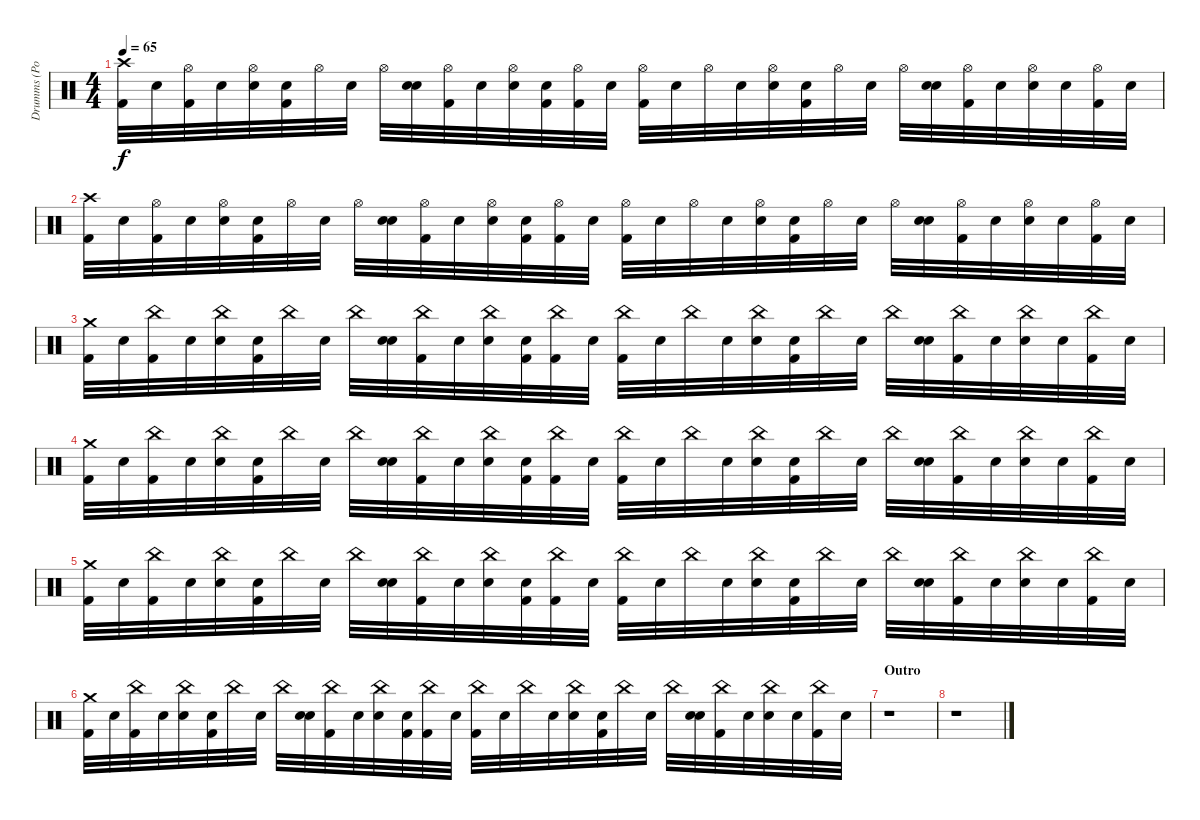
\track ("Drumms (Poll0)" "Drumms (Po") {instrument percussion}
\staff {score}
\articulation defaults
\ts (4 4)
\tempo 65
\clef neutral
\ks c
("Crash high (hit)" "Kick (hit) 2").32{dy f} "Snare (hit)".32 ("Hi-Hat (open)" "Kick (hit) 2").32 "Snare (hit)".32 ("Hi-Hat (open)" "Snare (hit) 2").32 ("Snare (hit)" "Kick (hit) 2").32 "Hi-Hat (open)".32 "Snare (hit)".32 "Hi-Hat (open)".32 ("Snare (hit)" "Snare (hit) 2").32 ("Hi-Hat (open)" "Kick (hit) 2").32 "Snare (hit)".32 ("Hi-Hat (open)" "Snare (hit) 2").32 ("Snare (hit)" "Kick (hit) 2").32 ("Hi-Hat (open)" "Kick (hit) 2").32 "Snare (hit)".32 ("Hi-Hat (open)" "Kick (hit) 2").32 "Snare (hit)".32 "Hi-Hat (open)".32 "Snare (hit)".32 ("Hi-Hat (open)" "Snare (hit) 2").32 ("Snare (hit)" "Kick (hit) 2").32 "Hi-Hat (open)".32 "Snare (hit)".32 "Hi-Hat (open)".32 ("Snare (hit)" "Snare (hit) 2").32 ("Hi-Hat (open)" "Kick (hit) 2").32 "Snare (hit)".32 ("Hi-Hat (open)" "Snare (hit) 2").32 "Snare (hit)".32 ("Hi-Hat (open)" "Kick (hit) 2").32 "Snare (hit)".32 |
("Crash high (hit)" "Kick (hit) 2").32 "Snare (hit)".32 ("Hi-Hat (open)" "Kick (hit) 2").32 "Snare (hit)".32 ("Hi-Hat (open)" "Snare (hit) 2").32 ("Snare (hit)" "Kick (hit) 2").32 "Hi-Hat (open)".32 "Snare (hit)".32 "Hi-Hat (open)".32 ("Snare (hit)" "Snare (hit) 2").32 ("Hi-Hat (open)" "Kick (hit) 2").32 "Snare (hit)".32 ("Hi-Hat (open)" "Snare (hit) 2").32 ("Snare (hit)" "Kick (hit) 2").32 ("Hi-Hat (open)" "Kick (hit) 2").32 "Snare (hit)".32 ("Hi-Hat (open)" "Kick (hit) 2").32 "Snare (hit)".32 "Hi-Hat (open)".32 "Snare (hit)".32 ("Hi-Hat (open)" "Snare (hit) 2").32 ("Snare (hit)" "Kick (hit) 2").32 "Hi-Hat (open)".32 "Snare (hit)".32 "Hi-Hat (open)".32 ("Snare (hit)" "Snare (hit) 2").32 ("Hi-Hat (open)" "Kick (hit) 2").32 "Snare (hit)".32 ("Hi-Hat (open)" "Snare (hit) 2").32 "Snare (hit)".32 ("Hi-Hat (open)" "Kick (hit) 2").32 "Snare (hit)".32 |
("Crash medium (hit)" "Kick (hit) 2").32 "Snare (hit)".32 ("China (hit)" "Kick (hit) 2").32 "Snare (hit)".32 ("China (hit)" "Snare (hit) 2").32 ("Snare (hit)" "Kick (hit) 2").32 "China (hit)".32 "Snare (hit)".32 "China (hit)".32 ("Snare (hit)" "Snare (hit) 2").32 ("China (hit)" "Kick (hit) 2").32 "Snare (hit)".32 ("China (hit)" "Snare (hit) 2").32 ("Snare (hit)" "Kick (hit) 2").32 ("China (hit)" "Kick (hit) 2").32 "Snare (hit)".32 ("China (hit)" "Kick (hit) 2").32 "Snare (hit)".32 "China (hit)".32 "Snare (hit)".32 ("China (hit)" "Snare (hit) 2").32 ("Snare (hit)" "Kick (hit) 2").32 "China (hit)".32 "Snare (hit)".32 "China (hit)".32 ("Snare (hit)" "Snare (hit) 2").32 ("China (hit)" "Kick (hit) 2").32 "Snare (hit)".32 ("China (hit)" "Snare (hit) 2").32 "Snare (hit)".32 ("China (hit)" "Kick (hit) 2").32 "Snare (hit)".32 |
("Crash medium (hit)" "Kick (hit) 2").32 "Snare (hit)".32 ("China (hit)" "Kick (hit) 2").32 "Snare (hit)".32 ("China (hit)" "Snare (hit) 2").32 ("Snare (hit)" "Kick (hit) 2").32 "China (hit)".32 "Snare (hit)".32 "China (hit)".32 ("Snare (hit)" "Snare (hit) 2").32 ("China (hit)" "Kick (hit) 2").32 "Snare (hit)".32 ("China (hit)" "Snare (hit) 2").32 ("Snare (hit)" "Kick (hit) 2").32 ("China (hit)" "Kick (hit) 2").32 "Snare (hit)".32 ("China (hit)" "Kick (hit) 2").32 "Snare (hit)".32 "China (hit)".32 "Snare (hit)".32 ("China (hit)" "Snare (hit) 2").32 ("Snare (hit)" "Kick (hit) 2").32 "China (hit)".32 "Snare (hit)".32 "China (hit)".32 ("Snare (hit)" "Snare (hit) 2").32 ("China (hit)" "Kick (hit) 2").32 "Snare (hit)".32 ("China (hit)" "Snare (hit) 2").32 "Snare (hit)".32 ("China (hit)" "Kick (hit) 2").32 "Snare (hit)".32 |
("Crash medium (hit)" "Kick (hit) 2").32 "Snare (hit)".32 ("China (hit)" "Kick (hit) 2").32 "Snare (hit)".32 ("China (hit)" "Snare (hit) 2").32 ("Snare (hit)" "Kick (hit) 2").32 "China (hit)".32 "Snare (hit)".32 "China (hit)".32 ("Snare (hit)" "Snare (hit) 2").32 ("China (hit)" "Kick (hit) 2").32 "Snare (hit)".32 ("China (hit)" "Snare (hit) 2").32 ("Snare (hit)" "Kick (hit) 2").32 ("China (hit)" "Kick (hit) 2").32 "Snare (hit)".32 ("China (hit)" "Kick (hit) 2").32 "Snare (hit)".32 "China (hit)".32 "Snare (hit)".32 ("China (hit)" "Snare (hit) 2").32 ("Snare (hit)" "Kick (hit) 2").32 "China (hit)".32 "Snare (hit)".32 "China (hit)".32 ("Snare (hit)" "Snare (hit) 2").32 ("China (hit)" "Kick (hit) 2").32 "Snare (hit)".32 ("China (hit)" "Snare (hit) 2").32 "Snare (hit)".32 ("China (hit)" "Kick (hit) 2").32 "Snare (hit)".32 |
("Crash medium (hit)" "Kick (hit) 2").32 "Snare (hit)".32 ("China (hit)" "Kick (hit) 2").32 "Snare (hit)".32 ("China (hit)" "Snare (hit) 2").32 ("Snare (hit)" "Kick (hit) 2").32 "China (hit)".32 "Snare (hit)".32 "China (hit)".32 ("Snare (hit)" "Snare (hit) 2").32 ("China (hit)" "Kick (hit) 2").32 "Snare (hit)".32 ("China (hit)" "Snare (hit) 2").32 ("Snare (hit)" "Kick (hit) 2").32 ("China (hit)" "Kick (hit) 2").32 "Snare (hit)".32 ("China (hit)" "Kick (hit) 2").32 "Snare (hit)".32 "China (hit)".32 "Snare (hit)".32 ("China (hit)" "Snare (hit) 2").32 ("Snare (hit)" "Kick (hit) 2").32 "China (hit)".32 "Snare (hit)".32 "China (hit)".32 ("Snare (hit)" "Snare (hit) 2").32 ("China (hit)" "Kick (hit) 2").32 "Snare (hit)".32 ("China (hit)" "Snare (hit) 2").32 "Snare (hit)".32 ("China (hit)" "Kick (hit) 2").32 "Snare (hit)".32 |
\section ("" "Outro")
r.1 |
r.1
